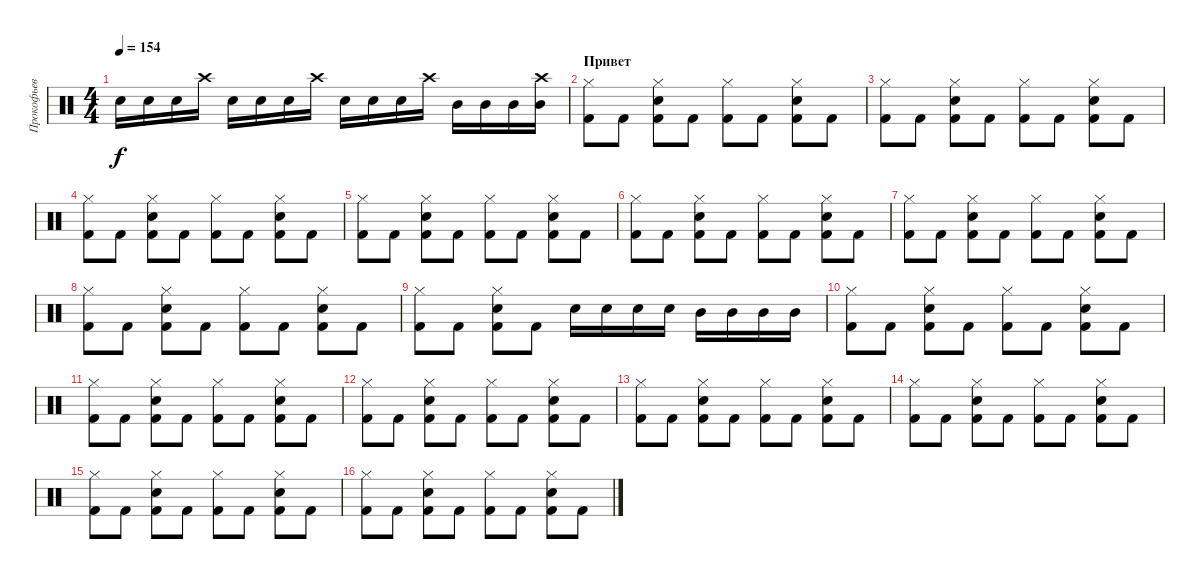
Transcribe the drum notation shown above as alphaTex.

\track ("Прокофьев" "Прокофьев") {instrument percussion}
\staff {score}
\articulation defaults
\ts (4 4)
\tempo 154
\clef neutral
\ks c "Electric Snare (hit)".16{dy f} "Electric Snare (hit)".16 "Electric Snare (hit)".16 "Crash high (hit)".16 "Electric Snare (hit)".16 "Electric Snare (hit)".16 "Electric Snare (hit)".16 "Crash high (hit)".16 "Electric Snare (hit)".16 "Electric Snare (hit)".16 "Electric Snare (hit)".16 "Crash high (hit)".16 "Mid Tom (hit)".16 "Mid Tom (hit)".16 "Mid Tom (hit)".16
("Crash high (hit)" "Mid Tom (hit)").16 |
\section ("" "Привет")
("Hi-Hat (closed)" "Kick (hit) 2").8 "Kick (hit) 2".8 ("Hi-Hat (closed)" "Snare (hit) 2" "Kick (hit) 2").8 "Kick (hit) 2".8 ("Hi-Hat (closed)" "Kick (hit) 2").8 "Kick (hit) 2".8 ("Hi-Hat (closed)" "Snare (hit) 2" "Kick (hit) 2").8 "Kick (hit) 2".8 |
("Hi-Hat (closed)" "Kick (hit) 2").8 "Kick (hit) 2".8 ("Hi-Hat (closed)" "Snare (hit) 2" "Kick (hit) 2").8 "Kick (hit) 2".8 ("Hi-Hat (closed)" "Kick (hit) 2").8 "Kick (hit) 2".8 ("Hi-Hat (closed)" "Snare (hit) 2" "Kick (hit) 2").8 "Kick (hit) 2".8 |
("Hi-Hat (closed)" "Kick (hit) 2").8 "Kick (hit) 2".8 ("Hi-Hat (closed)" "Snare (hit) 2" "Kick (hit) 2").8 "Kick (hit) 2".8 ("Hi-Hat (closed)" "Kick (hit) 2").8 "Kick (hit) 2".8 ("Hi-Hat (closed)" "Snare (hit) 2" "Kick (hit) 2").8 "Kick (hit) 2".8 |
("Hi-Hat (closed)" "Kick (hit) 2").8 "Kick (hit) 2".8 ("Hi-Hat (closed)" "Snare (hit) 2" "Kick (hit) 2").8 "Kick (hit) 2".8 ("Hi-Hat (closed)" "Kick (hit) 2").8 "Kick (hit) 2".8 ("Hi-Hat (closed)" "Snare (hit) 2" "Kick (hit) 2").8 "Kick (hit) 2".8 |
("Hi-Hat (closed)" "Kick (hit) 2").8 "Kick (hit) 2".8 ("Hi-Hat (closed)" "Snare (hit) 2" "Kick (hit) 2").8 "Kick (hit) 2".8 ("Hi-Hat (closed)" "Kick (hit) 2").8 "Kick (hit) 2".8 ("Hi-Hat (closed)" "Snare (hit) 2" "Kick (hit) 2").8 "Kick (hit) 2".8 |
("Hi-Hat (closed)" "Kick (hit) 2").8 "Kick (hit) 2".8 ("Hi-Hat (closed)" "Snare (hit) 2" "Kick (hit) 2").8 "Kick (hit) 2".8 ("Hi-Hat (closed)" "Kick (hit) 2").8 "Kick (hit) 2".8 ("Hi-Hat (closed)" "Snare (hit) 2" "Kick (hit) 2").8 "Kick (hit) 2".8 |
("Hi-Hat (closed)" "Kick (hit) 2").8 "Kick (hit) 2".8 ("Hi-Hat (closed)" "Snare (hit) 2" "Kick (hit) 2").8 "Kick (hit) 2".8 ("Hi-Hat (closed)" "Kick (hit) 2").8 "Kick (hit) 2".8 ("Hi-Hat (closed)" "Snare (hit) 2" "Kick (hit) 2").8 "Kick (hit) 2".8 |
("Hi-Hat (closed)" "Kick (hit) 2").8 "Kick (hit) 2".8 ("Hi-Hat (closed)" "Snare (hit) 2" "Kick (hit) 2").8 "Kick (hit) 2".8 "Snare (hit) 2".16 "Snare (hit) 2".16 "Snare (hit) 2".16 "Snare (hit) 2".16 "Mid Tom (hit)".16 "Mid Tom (hit)".16 "Mid Tom (hit)".16 "Mid Tom (hit)".16 |
("Hi-Hat (closed)" "Kick (hit) 2").8 "Kick (hit) 2".8 ("Hi-Hat (closed)" "Snare (hit) 2" "Kick (hit) 2").8 "Kick (hit) 2".8 ("Hi-Hat (closed)" "Kick (hit) 2").8 "Kick (hit) 2".8 ("Hi-Hat (closed)" "Snare (hit) 2" "Kick (hit) 2").8 "Kick (hit) 2".8 |
("Hi-Hat (closed)" "Kick (hit) 2").8 "Kick (hit) 2".8 ("Hi-Hat (closed)" "Snare (hit) 2" "Kick (hit) 2").8 "Kick (hit) 2".8 ("Hi-Hat (closed)" "Kick (hit) 2").8 "Kick (hit) 2".8 ("Hi-Hat (closed)" "Snare (hit) 2" "Kick (hit) 2").8 "Kick (hit) 2".8 |
("Hi-Hat (closed)" "Kick (hit) 2").8 "Kick (hit) 2".8 ("Hi-Hat (closed)" "Snare (hit) 2" "Kick (hit) 2").8 "Kick (hit) 2".8 ("Hi-Hat (closed)" "Kick (hit) 2").8 "Kick (hit) 2".8 ("Hi-Hat (closed)" "Snare (hit) 2" "Kick (hit) 2").8 "Kick (hit) 2".8 |
("Hi-Hat (closed)" "Kick (hit) 2").8 "Kick (hit) 2".8 ("Hi-Hat (closed)" "Snare (hit) 2" "Kick (hit) 2").8 "Kick (hit) 2".8 ("Hi-Hat (closed)" "Kick (hit) 2").8 "Kick (hit) 2".8 ("Hi-Hat (closed)" "Snare (hit) 2" "Kick (hit) 2").8 "Kick (hit) 2".8 |
("Hi-Hat (closed)" "Kick (hit) 2").8 "Kick (hit) 2".8 ("Hi-Hat (closed)" "Snare (hit) 2" "Kick (hit) 2").8 "Kick (hit) 2".8 ("Hi-Hat (closed)" "Kick (hit) 2").8 "Kick (hit) 2".8 ("Hi-Hat (closed)" "Snare (hit) 2" "Kick (hit) 2").8 "Kick (hit) 2".8 |
("Hi-Hat (closed)" "Kick (hit) 2").8 "Kick (hit) 2".8 ("Hi-Hat (closed)" "Snare (hit) 2" "Kick (hit) 2").8 "Kick (hit) 2".8 ("Hi-Hat (closed)" "Kick (hit) 2").8 "Kick (hit) 2".8 ("Hi-Hat (closed)" "Snare (hit) 2" "Kick (hit) 2").8 "Kick (hit) 2".8 |
("Hi-Hat (closed)" "Kick (hit) 2").8 "Kick (hit) 2".8 ("Hi-Hat (closed)" "Snare (hit) 2" "Kick (hit) 2").8 "Kick (hit) 2".8 ("Hi-Hat (closed)" "Kick (hit) 2").8 "Kick (hit) 2".8 ("Hi-Hat (closed)" "Snare (hit) 2" "Kick (hit) 2").8 "Kick (hit) 2".8
